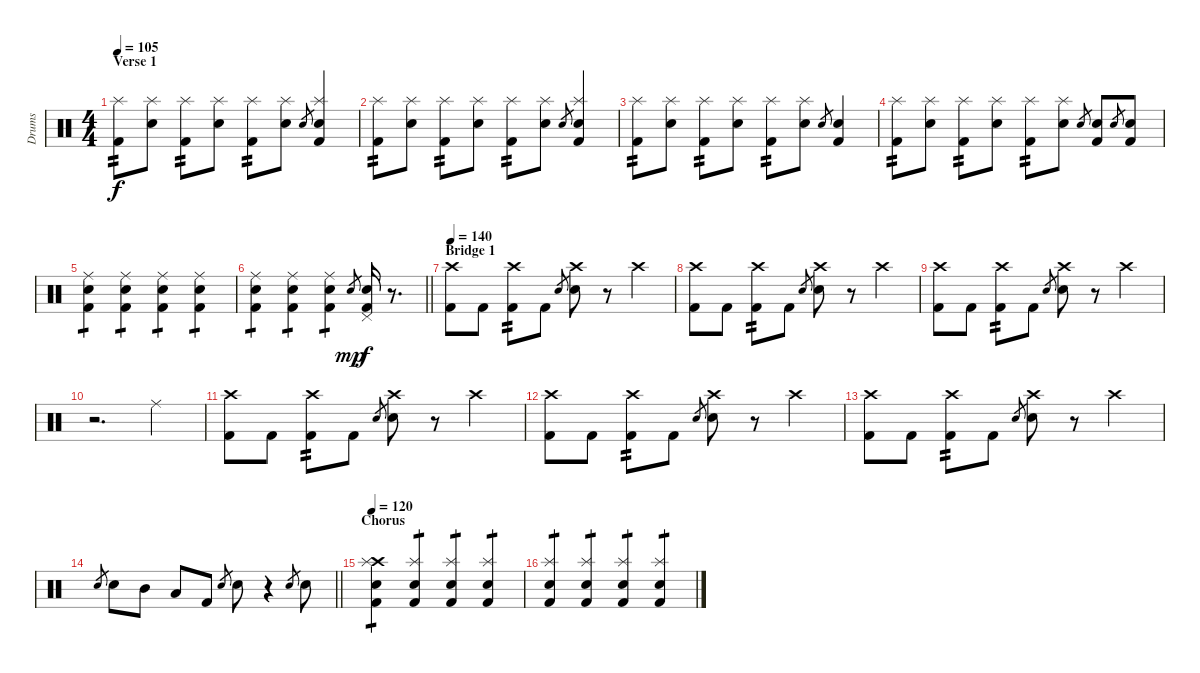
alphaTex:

\track ("Drums" "Drums") {instrument percussion}
\staff {score}
\articulation defaults
\ts (4 4)
\section ("" "Verse 1")
\tempo 105
\clef neutral
\ks c
("Kick (hit) 2" "Splash (hit)").8{tp 2 dy f} ("Electric Snare (hit)" "Splash (hit)").8 ("Kick (hit) 2" "Splash (hit)").8{tp 2} ("Electric Snare (hit)" "Splash (hit)").8 ("Kick (hit) 2" "Splash (hit)").8{tp 2} ("Electric Snare (hit)" "Splash (hit)").8 "Electric Snare (hit)".8{gr} ("Kick (hit) 2" "Electric Snare (hit)" "Splash (hit)").4 |
("Kick (hit) 2" "Splash (hit)").8{tp 2} ("Electric Snare (hit)" "Splash (hit)").8 ("Kick (hit) 2" "Splash (hit)").8{tp 2} ("Electric Snare (hit)" "Splash (hit)").8 ("Kick (hit) 2" "Splash (hit)").8{tp 2} ("Electric Snare (hit)" "Splash (hit)").8 "Electric Snare (hit)".8{gr} ("Kick (hit) 2" "Electric Snare (hit)" "Splash (hit)").4 |
("Kick (hit) 2" "Splash (hit)").8{tp 2} ("Electric Snare (hit)" "Splash (hit)").8 ("Kick (hit) 2" "Splash (hit)").8{tp 2} ("Electric Snare (hit)" "Splash (hit)").8 ("Kick (hit) 2" "Splash (hit)").8{tp 2} ("Electric Snare (hit)" "Splash (hit)").8 "Electric Snare (hit)".8{gr} ("Kick (hit) 2" "Electric Snare (hit)").4 |
("Kick (hit) 2" "Splash (hit)").8{tp 2} ("Electric Snare (hit)" "Splash (hit)").8 ("Kick (hit) 2" "Splash (hit)").8{tp 2} ("Electric Snare (hit)" "Splash (hit)").8 ("Kick (hit) 2" "Splash (hit)").8{tp 2} ("Electric Snare (hit)" "Splash (hit)").8 "Electric Snare (hit)".8{gr} ("Kick (hit) 2" "Electric Snare (hit)").8 "Electric Snare (hit)".8{gr} ("Kick (hit) 2" "Electric Snare (hit)").8 |
("Kick (hit) 2" "Electric Snare (hit)" "Ride (middle)").4{tp 1} ("Kick (hit) 2" "Electric Snare (hit)" "Ride (middle)").4{tp 1} ("Kick (hit) 2" "Electric Snare (hit)" "Ride (middle)").4{tp 1} ("Kick (hit) 2" "Electric Snare (hit)" "Ride (middle)").4{tp 1} |
\barLineRight lightlight
("Kick (hit) 2" "Electric Snare (hit)" "Ride (middle)").4{tp 1} ("Kick (hit) 2" "Electric Snare (hit)" "Ride (middle)").4{tp 1} ("Kick (hit) 2" "Electric Snare (hit)" "Ride (middle)").4{tp 1} "Electric Snare (hit)".8{gr dy mp} ("Kick (hit) 2" "Electric Snare (hit)" "Pedal Hi-Hat (hit)").16{dy f} r.8{d} |
\section ("" "Bridge 1")
\tempo 140
("Kick (hit) 2" "Crash high (hit)").8 "Kick (hit) 2".8 ("Kick (hit) 2" "Crash high (hit)").8{tp 2} "Kick (hit) 2".8 "Electric Snare (hit)".8{gr} ("Electric Snare (hit)" "Crash high (hit)").8 r.8 "Crash high (hit)".4 |
("Kick (hit) 2" "Crash high (hit)").8 "Kick (hit) 2".8 ("Kick (hit) 2" "Crash high (hit)").8{tp 2} "Kick (hit) 2".8 "Electric Snare (hit)".8{gr} ("Electric Snare (hit)" "Crash high (hit)").8 r.8 "Crash high (hit)".4 |
("Kick (hit) 2" "Crash high (hit)").8 "Kick (hit) 2".8 ("Kick (hit) 2" "Crash high (hit)").8{tp 2} "Kick (hit) 2".8 "Electric Snare (hit)".8{gr} ("Electric Snare (hit)" "Crash high (hit)").8 r.8 "Crash high (hit)".4 |
r.2{d} "Ride (middle)".4 |
("Kick (hit) 2" "Crash high (hit)").8 "Kick (hit) 2".8 ("Kick (hit) 2" "Crash high (hit)").8{tp 2} "Kick (hit) 2".8 "Electric Snare (hit)".8{gr} ("Electric Snare (hit)" "Crash high (hit)").8 r.8 "Crash high (hit)".4 |
("Kick (hit) 2" "Crash high (hit)").8 "Kick (hit) 2".8 ("Kick (hit) 2" "Crash high (hit)").8{tp 2} "Kick (hit) 2".8 "Electric Snare (hit)".8{gr} ("Electric Snare (hit)" "Crash high (hit)").8 r.8 "Crash high (hit)".4 |
("Kick (hit) 2" "Crash high (hit)").8 "Kick (hit) 2".8 ("Kick (hit) 2" "Crash high (hit)").8{tp 2} "Kick (hit) 2".8 "Electric Snare (hit)".8{gr} ("Electric Snare (hit)" "Crash high (hit)").8 r.8 "Crash high (hit)".4 |
\barLineRight lightlight "Electric Snare (hit)".8{gr} "Electric Snare (hit)".8 "Mid Tom (hit)".8 "Low Tom (hit)".8 "Kick (hit) 2".8 "Electric Snare (hit)".8{gr} "Electric Snare (hit)".8
r.4 "Electric Snare (hit)".8{gr} "Electric Snare (hit)".8 |
\section ("" "Chorus")
\tempo 120
("Kick (hit) 2" "Electric Snare (hit)" "Crash high (hit)" "Splash (hit)").4{tp 1} ("Kick (hit) 2" "Electric Snare (hit)" "Splash (hit)").4{tp 1} ("Kick (hit) 2" "Electric Snare (hit)" "Splash (hit)").4{tp 1} ("Kick (hit) 2" "Electric Snare (hit)" "Splash (hit)").4{tp 1} |
("Kick (hit) 2" "Electric Snare (hit)" "Splash (hit)").4{tp 1} ("Kick (hit) 2" "Electric Snare (hit)" "Splash (hit)").4{tp 1} ("Kick (hit) 2" "Electric Snare (hit)" "Splash (hit)").4{tp 1} ("Kick (hit) 2" "Electric Snare (hit)" "Splash (hit)").4{tp 1}
